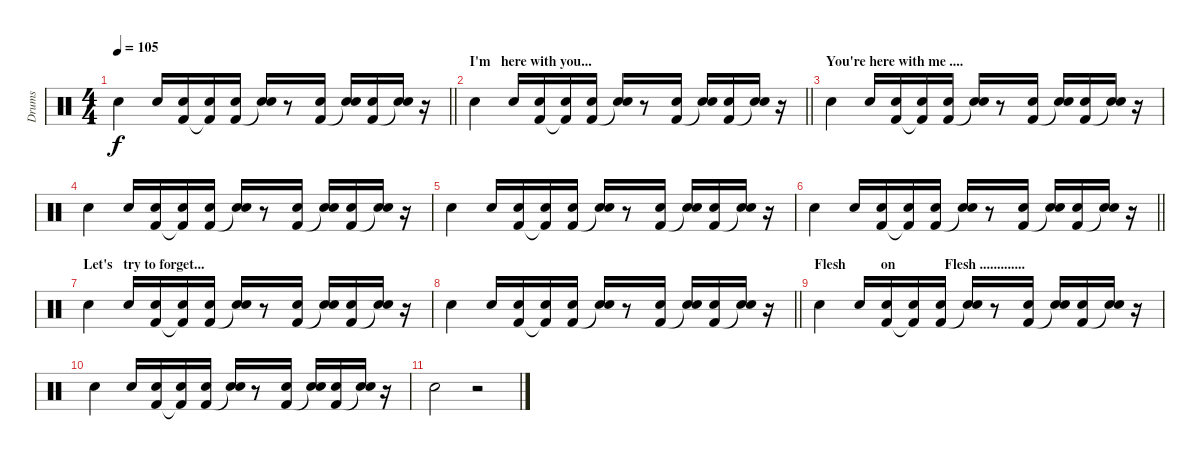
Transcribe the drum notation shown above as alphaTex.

\track ("Drums " "Drums ") {instrument percussion}
\staff {score}
\articulation defaults
\ts (4 4)
\tempo 105
\clef neutral
\barLineRight lightlight
\ks c "Snare (hit) 2".4{dy f} "Snare (hit) 2".16
("Kick (hit) 2" "Snare (hit) 2").16 ("Kick (hit) 2"{t} "Snare (hit) 2").16 ("Kick (hit) 2" "Snare (hit) 2").16 ("Snare (hit)"{t} "Snare (hit) 2").16 r.8 ("Kick (hit) 2" "Snare (hit) 2").16 ("Snare (hit)"{t} "Snare (hit) 2").16 ("Kick (hit) 2" "Snare (hit) 2").16 ("Snare (hit)"{t} "Snare (hit) 2").16 r.16 |
\section ("" "I'm   here with you...")
\barLineRight lightlight "Snare (hit) 2".4 "Snare (hit) 2".16
("Kick (hit) 2" "Snare (hit) 2").16 ("Kick (hit) 2"{t} "Snare (hit) 2").16 ("Kick (hit) 2" "Snare (hit) 2").16 ("Snare (hit)"{t} "Snare (hit) 2").16 r.8 ("Kick (hit) 2" "Snare (hit) 2").16 ("Snare (hit)"{t} "Snare (hit) 2").16 ("Kick (hit) 2" "Snare (hit) 2").16 ("Snare (hit)"{t} "Snare (hit) 2").16 r.16 |
\section ("" "You're here with me ....")
"Snare (hit) 2".4 "Snare (hit) 2".16 ("Kick (hit) 2" "Snare (hit) 2").16 ("Kick (hit) 2"{t} "Snare (hit) 2").16 ("Kick (hit) 2" "Snare (hit) 2").16 ("Snare (hit)"{t} "Snare (hit) 2").16 r.8 ("Kick (hit) 2" "Snare (hit) 2").16 ("Snare (hit)"{t} "Snare (hit) 2").16 ("Kick (hit) 2" "Snare (hit) 2").16 ("Snare (hit)"{t} "Snare (hit) 2").16 r.16 |
"Snare (hit) 2".4 "Snare (hit) 2".16 ("Kick (hit) 2" "Snare (hit) 2").16 ("Kick (hit) 2"{t} "Snare (hit) 2").16 ("Kick (hit) 2" "Snare (hit) 2").16 ("Snare (hit)"{t} "Snare (hit) 2").16 r.8 ("Kick (hit) 2" "Snare (hit) 2").16 ("Snare (hit)"{t} "Snare (hit) 2").16 ("Kick (hit) 2" "Snare (hit) 2").16 ("Snare (hit)"{t} "Snare (hit) 2").16 r.16 |
"Snare (hit) 2".4 "Snare (hit) 2".16 ("Kick (hit) 2" "Snare (hit) 2").16 ("Kick (hit) 2"{t} "Snare (hit) 2").16 ("Kick (hit) 2" "Snare (hit) 2").16 ("Snare (hit)"{t} "Snare (hit) 2").16 r.8 ("Kick (hit) 2" "Snare (hit) 2").16 ("Snare (hit)"{t} "Snare (hit) 2").16 ("Kick (hit) 2" "Snare (hit) 2").16 ("Snare (hit)"{t} "Snare (hit) 2").16 r.16 |
\barLineRight lightlight "Snare (hit) 2".4 "Snare (hit) 2".16
("Kick (hit) 2" "Snare (hit) 2").16 ("Kick (hit) 2"{t} "Snare (hit) 2").16 ("Kick (hit) 2" "Snare (hit) 2").16 ("Snare (hit)"{t} "Snare (hit) 2").16 r.8 ("Kick (hit) 2" "Snare (hit) 2").16 ("Snare (hit)"{t} "Snare (hit) 2").16 ("Kick (hit) 2" "Snare (hit) 2").16 ("Snare (hit)"{t} "Snare (hit) 2").16 r.16 |
\section ("" "Let's   try to forget...")
"Snare (hit) 2".4 "Snare (hit) 2".16 ("Kick (hit) 2" "Snare (hit) 2").16 ("Kick (hit) 2"{t} "Snare (hit) 2").16 ("Kick (hit) 2" "Snare (hit) 2").16 ("Snare (hit)"{t} "Snare (hit) 2").16 r.8 ("Kick (hit) 2" "Snare (hit) 2").16 ("Snare (hit)"{t} "Snare (hit) 2").16 ("Kick (hit) 2" "Snare (hit) 2").16 ("Snare (hit)"{t} "Snare (hit) 2").16 r.16 |
\barLineRight lightlight "Snare (hit) 2".4 "Snare (hit) 2".16
("Kick (hit) 2" "Snare (hit) 2").16 ("Kick (hit) 2"{t} "Snare (hit) 2").16 ("Kick (hit) 2" "Snare (hit) 2").16 ("Snare (hit)"{t} "Snare (hit) 2").16 r.8 ("Kick (hit) 2" "Snare (hit) 2").16 ("Snare (hit)"{t} "Snare (hit) 2").16 ("Kick (hit) 2" "Snare (hit) 2").16 ("Snare (hit)"{t} "Snare (hit) 2").16 r.16 |
\section ("" "Flesh          on              Flesh .............")
"Snare (hit) 2".4 "Snare (hit) 2".16 ("Kick (hit) 2" "Snare (hit) 2").16 ("Kick (hit) 2"{t} "Snare (hit) 2").16 ("Kick (hit) 2" "Snare (hit) 2").16 ("Snare (hit)"{t} "Snare (hit) 2").16 r.8 ("Kick (hit) 2" "Snare (hit) 2").16 ("Snare (hit)"{t} "Snare (hit) 2").16 ("Kick (hit) 2" "Snare (hit) 2").16 ("Snare (hit)"{t} "Snare (hit) 2").16 r.16 |
"Snare (hit) 2".4 "Snare (hit) 2".16 ("Kick (hit) 2" "Snare (hit) 2").16 ("Kick (hit) 2"{t} "Snare (hit) 2").16 ("Kick (hit) 2" "Snare (hit) 2").16 ("Snare (hit)"{t} "Snare (hit) 2").16 r.8 ("Kick (hit) 2" "Snare (hit) 2").16 ("Snare (hit)"{t} "Snare (hit) 2").16 ("Kick (hit) 2" "Snare (hit) 2").16 ("Snare (hit)"{t} "Snare (hit) 2").16 r.16 |
"Snare (hit) 2".2 r.2
